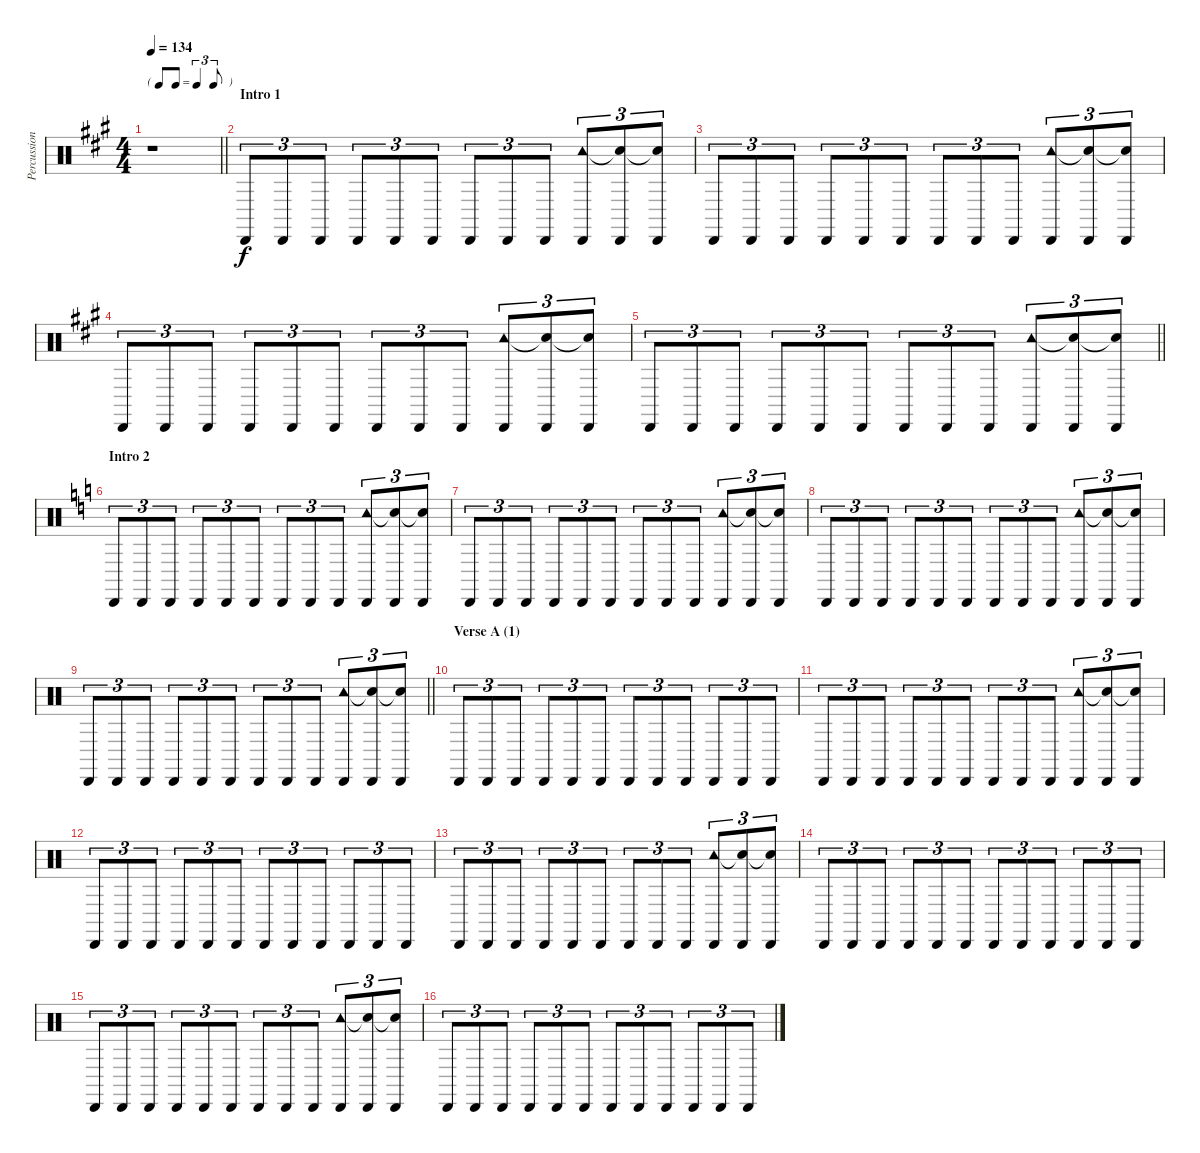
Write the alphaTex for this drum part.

\track ("Percussion" "Percussion") {instrument percussion}
\staff {score}
\articulation defaults
\ts (4 4)
\tf triplet8th
\tempo 134
\clef neutral
\barLineRight lightlight
\ks a
r.1{dy f} |
\section ("" "Intro 1")
"Cabasa (hit)".8{tu (3 2)} "Cabasa (hit)".8{tu (3 2)} "Cabasa (hit)".8{tu (3 2)} "Cabasa (hit)".8{tu (3 2)} "Cabasa (hit)".8{tu (3 2)} "Cabasa (hit)".8{tu (3 2)} "Cabasa (hit)".8{tu (3 2)} "Cabasa (hit)".8{tu (3 2)} "Cabasa (hit)".8{tu (3 2)} ("Cabasa (hit)" "Tambourine (hit)").8{tu (3 2)} ("Cabasa (hit)" "Snare (hit)"{t}).8{tu (3 2)} ("Cabasa (hit)" "Snare (hit)"{t}).8{tu (3 2)} |
"Cabasa (hit)".8{tu (3 2)} "Cabasa (hit)".8{tu (3 2)} "Cabasa (hit)".8{tu (3 2)} "Cabasa (hit)".8{tu (3 2)} "Cabasa (hit)".8{tu (3 2)} "Cabasa (hit)".8{tu (3 2)} "Cabasa (hit)".8{tu (3 2)} "Cabasa (hit)".8{tu (3 2)} "Cabasa (hit)".8{tu (3 2)} ("Cabasa (hit)" "Tambourine (hit)").8{tu (3 2)} ("Cabasa (hit)" "Snare (hit)"{t}).8{tu (3 2)} ("Cabasa (hit)" "Snare (hit)"{t}).8{tu (3 2)} |
"Cabasa (hit)".8{tu (3 2)} "Cabasa (hit)".8{tu (3 2)} "Cabasa (hit)".8{tu (3 2)} "Cabasa (hit)".8{tu (3 2)} "Cabasa (hit)".8{tu (3 2)} "Cabasa (hit)".8{tu (3 2)} "Cabasa (hit)".8{tu (3 2)} "Cabasa (hit)".8{tu (3 2)} "Cabasa (hit)".8{tu (3 2)} ("Cabasa (hit)" "Tambourine (hit)").8{tu (3 2)} ("Cabasa (hit)" "Snare (hit)"{t}).8{tu (3 2)} ("Cabasa (hit)" "Snare (hit)"{t}).8{tu (3 2)} |
\barLineRight lightlight "Cabasa (hit)".8{tu (3 2)} "Cabasa (hit)".8{tu (3 2)} "Cabasa (hit)".8{tu (3 2)} "Cabasa (hit)".8{tu (3 2)} "Cabasa (hit)".8{tu (3 2)} "Cabasa (hit)".8{tu (3 2)} "Cabasa (hit)".8{tu (3 2)} "Cabasa (hit)".8{tu (3 2)} "Cabasa (hit)".8{tu (3 2)}
("Cabasa (hit)" "Tambourine (hit)").8{tu (3 2)} ("Cabasa (hit)" "Snare (hit)"{t}).8{tu (3 2)} ("Cabasa (hit)" "Snare (hit)"{t}).8{tu (3 2)} |
\section ("" "Intro 2")
\ks c "Cabasa (hit)".8{tu (3 2)} "Cabasa (hit)".8{tu (3 2)} "Cabasa (hit)".8{tu (3 2)} "Cabasa (hit)".8{tu (3 2)} "Cabasa (hit)".8{tu (3 2)} "Cabasa (hit)".8{tu (3 2)} "Cabasa (hit)".8{tu (3 2)} "Cabasa (hit)".8{tu (3 2)} "Cabasa (hit)".8{tu (3 2)}
("Cabasa (hit)" "Tambourine (hit)").8{tu (3 2)} ("Cabasa (hit)" "Snare (hit)"{t}).8{tu (3 2)} ("Cabasa (hit)" "Snare (hit)"{t}).8{tu (3 2)} |
"Cabasa (hit)".8{tu (3 2)} "Cabasa (hit)".8{tu (3 2)} "Cabasa (hit)".8{tu (3 2)} "Cabasa (hit)".8{tu (3 2)} "Cabasa (hit)".8{tu (3 2)} "Cabasa (hit)".8{tu (3 2)} "Cabasa (hit)".8{tu (3 2)} "Cabasa (hit)".8{tu (3 2)} "Cabasa (hit)".8{tu (3 2)} ("Cabasa (hit)" "Tambourine (hit)").8{tu (3 2)} ("Cabasa (hit)" "Snare (hit)"{t}).8{tu (3 2)} ("Cabasa (hit)" "Snare (hit)"{t}).8{tu (3 2)} |
"Cabasa (hit)".8{tu (3 2)} "Cabasa (hit)".8{tu (3 2)} "Cabasa (hit)".8{tu (3 2)} "Cabasa (hit)".8{tu (3 2)} "Cabasa (hit)".8{tu (3 2)} "Cabasa (hit)".8{tu (3 2)} "Cabasa (hit)".8{tu (3 2)} "Cabasa (hit)".8{tu (3 2)} "Cabasa (hit)".8{tu (3 2)} ("Cabasa (hit)" "Tambourine (hit)").8{tu (3 2)} ("Cabasa (hit)" "Snare (hit)"{t}).8{tu (3 2)} ("Cabasa (hit)" "Snare (hit)"{t}).8{tu (3 2)} |
\barLineRight lightlight "Cabasa (hit)".8{tu (3 2)} "Cabasa (hit)".8{tu (3 2)} "Cabasa (hit)".8{tu (3 2)} "Cabasa (hit)".8{tu (3 2)} "Cabasa (hit)".8{tu (3 2)} "Cabasa (hit)".8{tu (3 2)} "Cabasa (hit)".8{tu (3 2)} "Cabasa (hit)".8{tu (3 2)} "Cabasa (hit)".8{tu (3 2)}
("Cabasa (hit)" "Tambourine (hit)").8{tu (3 2)} ("Cabasa (hit)" "Snare (hit)"{t}).8{tu (3 2)} ("Cabasa (hit)" "Snare (hit)"{t}).8{tu (3 2)} |
\section ("" "Verse A (1)")
"Cabasa (hit)".8{tu (3 2)} "Cabasa (hit)".8{tu (3 2)} "Cabasa (hit)".8{tu (3 2)} "Cabasa (hit)".8{tu (3 2)} "Cabasa (hit)".8{tu (3 2)} "Cabasa (hit)".8{tu (3 2)} "Cabasa (hit)".8{tu (3 2)} "Cabasa (hit)".8{tu (3 2)} "Cabasa (hit)".8{tu (3 2)} "Cabasa (hit)".8{tu (3 2)} "Cabasa (hit)".8{tu (3 2)} "Cabasa (hit)".8{tu (3 2)} |
"Cabasa (hit)".8{tu (3 2)} "Cabasa (hit)".8{tu (3 2)} "Cabasa (hit)".8{tu (3 2)} "Cabasa (hit)".8{tu (3 2)} "Cabasa (hit)".8{tu (3 2)} "Cabasa (hit)".8{tu (3 2)} "Cabasa (hit)".8{tu (3 2)} "Cabasa (hit)".8{tu (3 2)} "Cabasa (hit)".8{tu (3 2)} ("Cabasa (hit)" "Tambourine (hit)").8{tu (3 2)} ("Cabasa (hit)" "Snare (hit)"{t}).8{tu (3 2)} ("Cabasa (hit)" "Snare (hit)"{t}).8{tu (3 2)} |
"Cabasa (hit)".8{tu (3 2)} "Cabasa (hit)".8{tu (3 2)} "Cabasa (hit)".8{tu (3 2)} "Cabasa (hit)".8{tu (3 2)} "Cabasa (hit)".8{tu (3 2)} "Cabasa (hit)".8{tu (3 2)} "Cabasa (hit)".8{tu (3 2)} "Cabasa (hit)".8{tu (3 2)} "Cabasa (hit)".8{tu (3 2)} "Cabasa (hit)".8{tu (3 2)} "Cabasa (hit)".8{tu (3 2)} "Cabasa (hit)".8{tu (3 2)} |
"Cabasa (hit)".8{tu (3 2)} "Cabasa (hit)".8{tu (3 2)} "Cabasa (hit)".8{tu (3 2)} "Cabasa (hit)".8{tu (3 2)} "Cabasa (hit)".8{tu (3 2)} "Cabasa (hit)".8{tu (3 2)} "Cabasa (hit)".8{tu (3 2)} "Cabasa (hit)".8{tu (3 2)} "Cabasa (hit)".8{tu (3 2)} ("Cabasa (hit)" "Tambourine (hit)").8{tu (3 2)} ("Cabasa (hit)" "Snare (hit)"{t}).8{tu (3 2)} ("Cabasa (hit)" "Snare (hit)"{t}).8{tu (3 2)} |
"Cabasa (hit)".8{tu (3 2)} "Cabasa (hit)".8{tu (3 2)} "Cabasa (hit)".8{tu (3 2)} "Cabasa (hit)".8{tu (3 2)} "Cabasa (hit)".8{tu (3 2)} "Cabasa (hit)".8{tu (3 2)} "Cabasa (hit)".8{tu (3 2)} "Cabasa (hit)".8{tu (3 2)} "Cabasa (hit)".8{tu (3 2)} "Cabasa (hit)".8{tu (3 2)} "Cabasa (hit)".8{tu (3 2)} "Cabasa (hit)".8{tu (3 2)} |
"Cabasa (hit)".8{tu (3 2)} "Cabasa (hit)".8{tu (3 2)} "Cabasa (hit)".8{tu (3 2)} "Cabasa (hit)".8{tu (3 2)} "Cabasa (hit)".8{tu (3 2)} "Cabasa (hit)".8{tu (3 2)} "Cabasa (hit)".8{tu (3 2)} "Cabasa (hit)".8{tu (3 2)} "Cabasa (hit)".8{tu (3 2)} ("Cabasa (hit)" "Tambourine (hit)").8{tu (3 2)} ("Cabasa (hit)" "Snare (hit)"{t}).8{tu (3 2)} ("Cabasa (hit)" "Snare (hit)"{t}).8{tu (3 2)} |
"Cabasa (hit)".8{tu (3 2)} "Cabasa (hit)".8{tu (3 2)} "Cabasa (hit)".8{tu (3 2)} "Cabasa (hit)".8{tu (3 2)} "Cabasa (hit)".8{tu (3 2)} "Cabasa (hit)".8{tu (3 2)} "Cabasa (hit)".8{tu (3 2)} "Cabasa (hit)".8{tu (3 2)} "Cabasa (hit)".8{tu (3 2)} "Cabasa (hit)".8{tu (3 2)} "Cabasa (hit)".8{tu (3 2)} "Cabasa (hit)".8{tu (3 2)}
